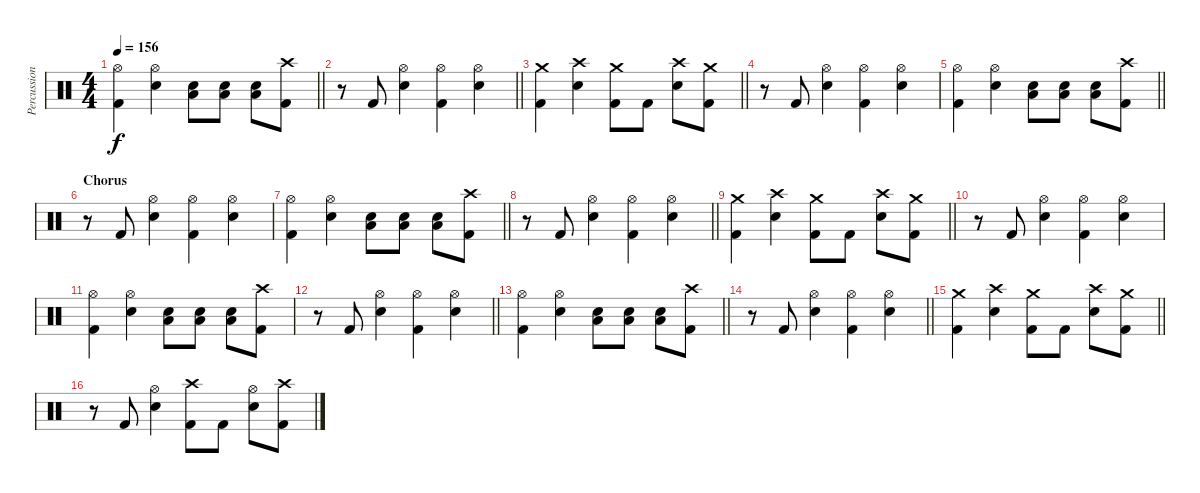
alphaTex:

\track ("Percussion" "Percussion") {instrument percussion}
\staff {score}
\articulation defaults
\ts (4 4)
\tempo 156
\clef neutral
\barLineRight lightlight
\ks c
("Hi-Hat (open)" "Kick (hit) 2").4{dy f} ("Hi-Hat (open)" "Snare (hit) 2").4 ("Low Tom (hit)" "Snare (hit) 2").8 ("Low Tom (hit)" "Snare (hit) 2").8 ("Low Tom (hit)" "Snare (hit) 2").8 ("Crash high (hit)" "Kick (hit) 2").8 |
\barLineRight lightlight
r.8 "Kick (hit) 2".8 ("Hi-Hat (open)" "Snare (hit) 2").4 ("Hi-Hat (open)" "Kick (hit) 2").4 ("Hi-Hat (open)" "Snare (hit) 2").4 |
\barLineRight lightlight
("Crash medium (hit)" "Kick (hit) 2").4 ("Crash high (hit)" "Snare (hit) 2").4 ("Crash medium (hit)" "Kick (hit) 2").8 "Kick (hit) 2".8 ("Crash high (hit)" "Snare (hit) 2").8 ("Crash medium (hit)" "Kick (hit) 2").8 |
r.8 "Kick (hit) 2".8 ("Hi-Hat (open)" "Snare (hit) 2").4 ("Hi-Hat (open)" "Kick (hit) 2").4 ("Hi-Hat (open)" "Snare (hit) 2").4 |
\barLineRight lightlight
("Hi-Hat (open)" "Kick (hit) 2").4 ("Hi-Hat (open)" "Snare (hit) 2").4 ("Low Tom (hit)" "Snare (hit) 2").8 ("Low Tom (hit)" "Snare (hit) 2").8 ("Low Tom (hit)" "Snare (hit) 2").8 ("Crash high (hit)" "Kick (hit) 2").8 |
\section ("" "Chorus")
r.8 "Kick (hit) 2".8 ("Hi-Hat (open)" "Snare (hit) 2").4 ("Hi-Hat (open)" "Kick (hit) 2").4 ("Hi-Hat (open)" "Snare (hit) 2").4 |
\barLineRight lightlight
("Hi-Hat (open)" "Kick (hit) 2").4 ("Hi-Hat (open)" "Snare (hit) 2").4 ("Low Tom (hit)" "Snare (hit) 2").8 ("Low Tom (hit)" "Snare (hit) 2").8 ("Low Tom (hit)" "Snare (hit) 2").8 ("Crash high (hit)" "Kick (hit) 2").8 |
\barLineRight lightlight
r.8 "Kick (hit) 2".8 ("Hi-Hat (open)" "Snare (hit) 2").4 ("Hi-Hat (open)" "Kick (hit) 2").4 ("Hi-Hat (open)" "Snare (hit) 2").4 |
\barLineRight lightlight
("Crash medium (hit)" "Kick (hit) 2").4 ("Crash high (hit)" "Snare (hit) 2").4 ("Crash medium (hit)" "Kick (hit) 2").8 "Kick (hit) 2".8 ("Crash high (hit)" "Snare (hit) 2").8 ("Crash medium (hit)" "Kick (hit) 2").8 |
r.8 "Kick (hit) 2".8 ("Hi-Hat (open)" "Snare (hit) 2").4 ("Hi-Hat (open)" "Kick (hit) 2").4 ("Hi-Hat (open)" "Snare (hit) 2").4 |
("Hi-Hat (open)" "Kick (hit) 2").4 ("Hi-Hat (open)" "Snare (hit) 2").4 ("Low Tom (hit)" "Snare (hit) 2").8 ("Low Tom (hit)" "Snare (hit) 2").8 ("Low Tom (hit)" "Snare (hit) 2").8 ("Crash high (hit)" "Kick (hit) 2").8 |
\barLineRight lightlight
r.8 "Kick (hit) 2".8 ("Hi-Hat (open)" "Snare (hit) 2").4 ("Hi-Hat (open)" "Kick (hit) 2").4 ("Hi-Hat (open)" "Snare (hit) 2").4 |
\barLineRight lightlight
("Hi-Hat (open)" "Kick (hit) 2").4 ("Hi-Hat (open)" "Snare (hit) 2").4 ("Low Tom (hit)" "Snare (hit) 2").8 ("Low Tom (hit)" "Snare (hit) 2").8 ("Low Tom (hit)" "Snare (hit) 2").8 ("Crash high (hit)" "Kick (hit) 2").8 |
\barLineRight lightlight
r.8 "Kick (hit) 2".8 ("Hi-Hat (open)" "Snare (hit) 2").4 ("Hi-Hat (open)" "Kick (hit) 2").4 ("Hi-Hat (open)" "Snare (hit) 2").4 |
\barLineRight lightlight
("Crash medium (hit)" "Kick (hit) 2").4 ("Crash high (hit)" "Snare (hit) 2").4 ("Crash medium (hit)" "Kick (hit) 2").8 "Kick (hit) 2".8 ("Crash high (hit)" "Snare (hit) 2").8 ("Crash medium (hit)" "Kick (hit) 2").8 |
r.8 "Kick (hit) 2".8 ("Hi-Hat (open)" "Snare (hit) 2").4 ("Crash high (hit)" "Kick (hit) 2").8 "Kick (hit) 2".8 ("Hi-Hat (open)" "Snare (hit) 2").8 ("Crash high (hit)" "Kick (hit) 2").8
